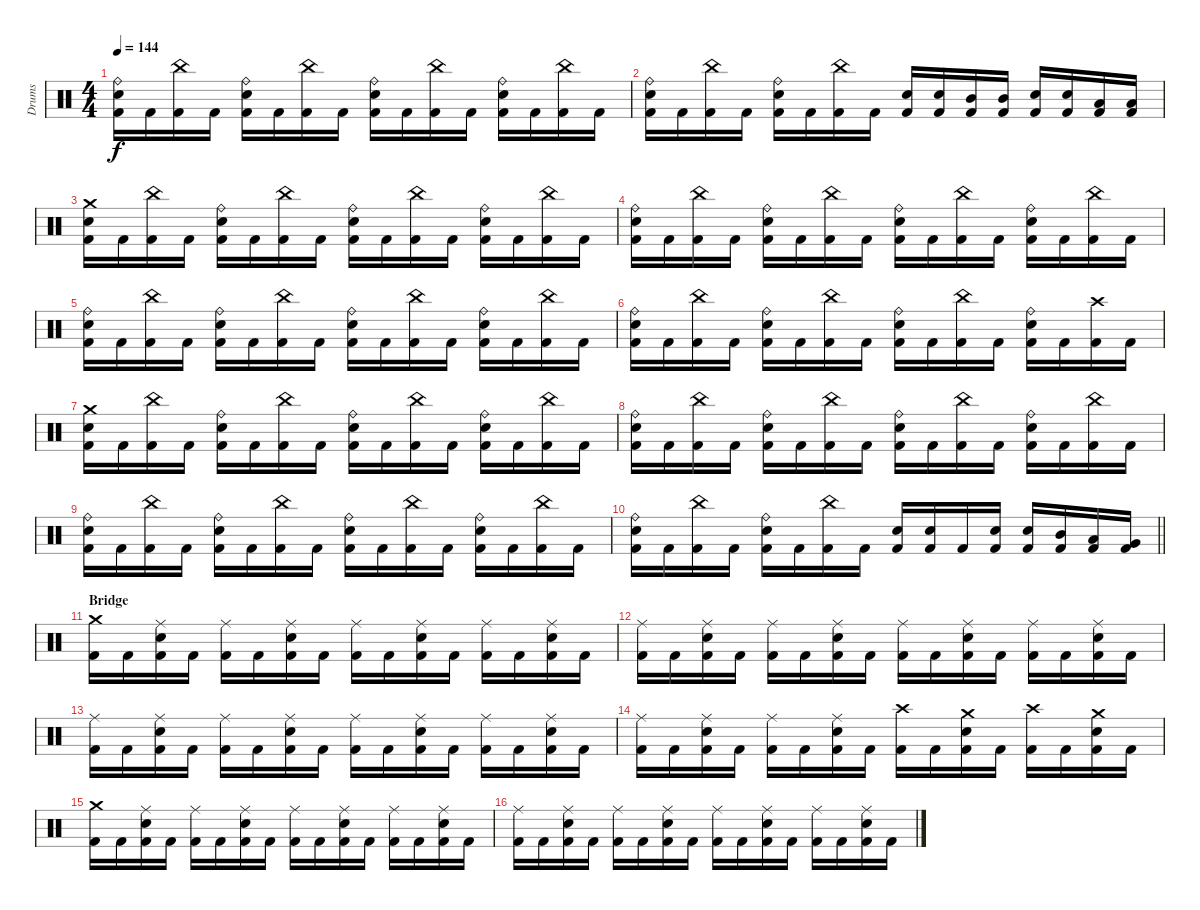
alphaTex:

\track ("Drums" "Drums") {instrument percussion}
\staff {score}
\articulation defaults
\ts (4 4)
\tempo 144
\clef neutral
\ks c
("Kick (hit) 2" "Snare (hit) 2" "Ride (bell)").16{dy f} "Kick (hit) 2".16 ("Kick (hit) 2" "China (hit)").16 "Kick (hit) 2".16 ("Kick (hit) 2" "Snare (hit) 2" "Ride (bell)").16 "Kick (hit) 2".16 ("Kick (hit) 2" "China (hit)").16 "Kick (hit) 2".16 ("Kick (hit) 2" "Snare (hit) 2" "Ride (bell)").16 "Kick (hit) 2".16 ("Kick (hit) 2" "China (hit)").16 "Kick (hit) 2".16 ("Kick (hit) 2" "Snare (hit) 2" "Ride (bell)").16 "Kick (hit) 2".16 ("Kick (hit) 2" "China (hit)").16 "Kick (hit) 2".16 |
("Kick (hit) 2" "Snare (hit) 2" "Ride (bell)").16 "Kick (hit) 2".16 ("Kick (hit) 2" "China (hit)").16 "Kick (hit) 2".16 ("Kick (hit) 2" "Snare (hit) 2" "Ride (bell)").16 "Kick (hit) 2".16 ("Kick (hit) 2" "China (hit)").16 "Kick (hit) 2".16 ("Kick (hit) 2" "Snare (hit) 2").16 ("Kick (hit) 2" "Snare (hit) 2").16 ("Kick (hit) 2" "Mid Tom (hit)").16 ("Kick (hit) 2" "Mid Tom (hit)").16 ("Kick (hit) 2" "Snare (hit) 2").16 ("Kick (hit) 2" "Snare (hit) 2").16 ("Kick (hit) 2" "Low Tom (hit)").16 ("Kick (hit) 2" "Low Tom (hit)").16 |
("Kick (hit) 2" "Snare (hit) 2" "Crash medium (hit)").16 "Kick (hit) 2".16 ("Kick (hit) 2" "China (hit)").16 "Kick (hit) 2".16 ("Kick (hit) 2" "Snare (hit) 2" "Ride (bell)").16 "Kick (hit) 2".16 ("Kick (hit) 2" "China (hit)").16 "Kick (hit) 2".16 ("Kick (hit) 2" "Snare (hit) 2" "Ride (bell)").16 "Kick (hit) 2".16 ("Kick (hit) 2" "China (hit)").16 "Kick (hit) 2".16 ("Kick (hit) 2" "Snare (hit) 2" "Ride (bell)").16 "Kick (hit) 2".16 ("Kick (hit) 2" "China (hit)").16 "Kick (hit) 2".16 |
("Kick (hit) 2" "Snare (hit) 2" "Ride (bell)").16 "Kick (hit) 2".16 ("Kick (hit) 2" "China (hit)").16 "Kick (hit) 2".16 ("Kick (hit) 2" "Snare (hit) 2" "Ride (bell)").16 "Kick (hit) 2".16 ("Kick (hit) 2" "China (hit)").16 "Kick (hit) 2".16 ("Kick (hit) 2" "Snare (hit) 2" "Ride (bell)").16 "Kick (hit) 2".16 ("Kick (hit) 2" "China (hit)").16 "Kick (hit) 2".16 ("Kick (hit) 2" "Snare (hit) 2" "Ride (bell)").16 "Kick (hit) 2".16 ("Kick (hit) 2" "China (hit)").16 "Kick (hit) 2".16 |
("Kick (hit) 2" "Snare (hit) 2" "Ride (bell)").16 "Kick (hit) 2".16 ("Kick (hit) 2" "China (hit)").16 "Kick (hit) 2".16 ("Kick (hit) 2" "Snare (hit) 2" "Ride (bell)").16 "Kick (hit) 2".16 ("Kick (hit) 2" "China (hit)").16 "Kick (hit) 2".16 ("Kick (hit) 2" "Snare (hit) 2" "Ride (bell)").16 "Kick (hit) 2".16 ("Kick (hit) 2" "China (hit)").16 "Kick (hit) 2".16 ("Kick (hit) 2" "Snare (hit) 2" "Ride (bell)").16 "Kick (hit) 2".16 ("Kick (hit) 2" "China (hit)").16 "Kick (hit) 2".16 |
("Kick (hit) 2" "Snare (hit) 2" "Ride (bell)").16 "Kick (hit) 2".16 ("Kick (hit) 2" "China (hit)").16 "Kick (hit) 2".16 ("Kick (hit) 2" "Snare (hit) 2" "Ride (bell)").16 "Kick (hit) 2".16 ("Kick (hit) 2" "China (hit)").16 "Kick (hit) 2".16 ("Kick (hit) 2" "Snare (hit) 2" "Ride (bell)").16 "Kick (hit) 2".16 ("Kick (hit) 2" "China (hit)").16 "Kick (hit) 2".16 ("Kick (hit) 2" "Snare (hit) 2" "Ride (bell)").16 "Kick (hit) 2".16 ("Kick (hit) 2" "Crash high (hit)").16 "Kick (hit) 2".16 |
("Kick (hit) 2" "Snare (hit) 2" "Crash medium (hit)").16 "Kick (hit) 2".16 ("Kick (hit) 2" "China (hit)").16 "Kick (hit) 2".16 ("Kick (hit) 2" "Snare (hit) 2" "Ride (bell)").16 "Kick (hit) 2".16 ("Kick (hit) 2" "China (hit)").16 "Kick (hit) 2".16 ("Kick (hit) 2" "Snare (hit) 2" "Ride (bell)").16 "Kick (hit) 2".16 ("Kick (hit) 2" "China (hit)").16 "Kick (hit) 2".16 ("Kick (hit) 2" "Snare (hit) 2" "Ride (bell)").16 "Kick (hit) 2".16 ("Kick (hit) 2" "China (hit)").16 "Kick (hit) 2".16 |
("Kick (hit) 2" "Snare (hit) 2" "Ride (bell)").16 "Kick (hit) 2".16 ("Kick (hit) 2" "China (hit)").16 "Kick (hit) 2".16 ("Kick (hit) 2" "Snare (hit) 2" "Ride (bell)").16 "Kick (hit) 2".16 ("Kick (hit) 2" "China (hit)").16 "Kick (hit) 2".16 ("Kick (hit) 2" "Snare (hit) 2" "Ride (bell)").16 "Kick (hit) 2".16 ("Kick (hit) 2" "China (hit)").16 "Kick (hit) 2".16 ("Kick (hit) 2" "Snare (hit) 2" "Ride (bell)").16 "Kick (hit) 2".16 ("Kick (hit) 2" "China (hit)").16 "Kick (hit) 2".16 |
("Kick (hit) 2" "Snare (hit) 2" "Ride (bell)").16 "Kick (hit) 2".16 ("Kick (hit) 2" "China (hit)").16 "Kick (hit) 2".16 ("Kick (hit) 2" "Snare (hit) 2" "Ride (bell)").16 "Kick (hit) 2".16 ("Kick (hit) 2" "China (hit)").16 "Kick (hit) 2".16 ("Kick (hit) 2" "Snare (hit) 2" "Ride (bell)").16 "Kick (hit) 2".16 ("Kick (hit) 2" "China (hit)").16 "Kick (hit) 2".16 ("Kick (hit) 2" "Snare (hit) 2" "Ride (bell)").16 "Kick (hit) 2".16 ("Kick (hit) 2" "China (hit)").16 "Kick (hit) 2".16 |
\barLineRight lightlight
("Kick (hit) 2" "Snare (hit) 2" "Ride (bell)").16 "Kick (hit) 2".16 ("Kick (hit) 2" "China (hit)").16 "Kick (hit) 2".16 ("Kick (hit) 2" "Snare (hit) 2" "Ride (bell)").16 "Kick (hit) 2".16 ("Kick (hit) 2" "China (hit)").16 "Kick (hit) 2".16 ("Kick (hit) 2" "Snare (hit) 2").16 ("Kick (hit) 2" "Snare (hit) 2").16 "Kick (hit) 2".16 ("Kick (hit) 2" "Snare (hit) 2").16 ("Kick (hit) 2" "Snare (hit) 2").16 ("Kick (hit) 2" "Mid Tom (hit)").16 ("Kick (hit) 2" "Low Tom (hit)").16 ("Kick (hit) 2" "Very Low Tom (hit)").16 |
\section ("" "Bridge")
("Kick (hit) 2" "Crash medium (hit)").16 "Kick (hit) 2".16 ("Kick (hit) 2" "Snare (hit) 2" "Ride (middle)").16 "Kick (hit) 2".16 ("Kick (hit) 2" "Ride (middle)").16 "Kick (hit) 2".16 ("Kick (hit) 2" "Snare (hit) 2" "Ride (middle)").16 "Kick (hit) 2".16 ("Kick (hit) 2" "Ride (middle)").16 "Kick (hit) 2".16 ("Kick (hit) 2" "Snare (hit) 2" "Ride (middle)").16 "Kick (hit) 2".16 ("Kick (hit) 2" "Ride (middle)").16 "Kick (hit) 2".16 ("Kick (hit) 2" "Snare (hit) 2" "Ride (middle)").16 "Kick (hit) 2".16 |
("Kick (hit) 2" "Ride (middle)").16 "Kick (hit) 2".16 ("Kick (hit) 2" "Snare (hit) 2" "Ride (middle)").16 "Kick (hit) 2".16 ("Kick (hit) 2" "Ride (middle)").16 "Kick (hit) 2".16 ("Kick (hit) 2" "Snare (hit) 2" "Ride (middle)").16 "Kick (hit) 2".16 ("Kick (hit) 2" "Ride (middle)").16 "Kick (hit) 2".16 ("Kick (hit) 2" "Snare (hit) 2" "Ride (middle)").16 "Kick (hit) 2".16 ("Kick (hit) 2" "Ride (middle)").16 "Kick (hit) 2".16 ("Kick (hit) 2" "Snare (hit) 2" "Ride (middle)").16 "Kick (hit) 2".16 |
("Kick (hit) 2" "Ride (middle)").16 "Kick (hit) 2".16 ("Kick (hit) 2" "Snare (hit) 2" "Ride (middle)").16 "Kick (hit) 2".16 ("Kick (hit) 2" "Ride (middle)").16 "Kick (hit) 2".16 ("Kick (hit) 2" "Snare (hit) 2" "Ride (middle)").16 "Kick (hit) 2".16 ("Kick (hit) 2" "Ride (middle)").16 "Kick (hit) 2".16 ("Kick (hit) 2" "Snare (hit) 2" "Ride (middle)").16 "Kick (hit) 2".16 ("Kick (hit) 2" "Ride (middle)").16 "Kick (hit) 2".16 ("Kick (hit) 2" "Snare (hit) 2" "Ride (middle)").16 "Kick (hit) 2".16 |
("Kick (hit) 2" "Ride (middle)").16 "Kick (hit) 2".16 ("Kick (hit) 2" "Snare (hit) 2" "Ride (middle)").16 "Kick (hit) 2".16 ("Kick (hit) 2" "Ride (middle)").16 "Kick (hit) 2".16 ("Kick (hit) 2" "Snare (hit) 2" "Ride (middle)").16 "Kick (hit) 2".16 ("Kick (hit) 2" "Crash high (hit)").16 "Kick (hit) 2".16 ("Kick (hit) 2" "Snare (hit) 2" "Crash medium (hit)").16 "Kick (hit) 2".16 ("Kick (hit) 2" "Crash high (hit)").16 "Kick (hit) 2".16 ("Kick (hit) 2" "Snare (hit) 2" "Crash medium (hit)").16 "Kick (hit) 2".16 |
("Kick (hit) 2" "Crash medium (hit)").16 "Kick (hit) 2".16 ("Kick (hit) 2" "Snare (hit) 2" "Ride (middle)").16 "Kick (hit) 2".16 ("Kick (hit) 2" "Ride (middle)").16 "Kick (hit) 2".16 ("Kick (hit) 2" "Snare (hit) 2" "Ride (middle)").16 "Kick (hit) 2".16 ("Kick (hit) 2" "Ride (middle)").16 "Kick (hit) 2".16 ("Kick (hit) 2" "Snare (hit) 2" "Ride (middle)").16 "Kick (hit) 2".16 ("Kick (hit) 2" "Ride (middle)").16 "Kick (hit) 2".16 ("Kick (hit) 2" "Snare (hit) 2" "Ride (middle)").16 "Kick (hit) 2".16 |
("Kick (hit) 2" "Ride (middle)").16 "Kick (hit) 2".16 ("Kick (hit) 2" "Snare (hit) 2" "Ride (middle)").16 "Kick (hit) 2".16 ("Kick (hit) 2" "Ride (middle)").16 "Kick (hit) 2".16 ("Kick (hit) 2" "Snare (hit) 2" "Ride (middle)").16 "Kick (hit) 2".16 ("Kick (hit) 2" "Ride (middle)").16 "Kick (hit) 2".16 ("Kick (hit) 2" "Snare (hit) 2" "Ride (middle)").16 "Kick (hit) 2".16 ("Kick (hit) 2" "Ride (middle)").16 "Kick (hit) 2".16 ("Kick (hit) 2" "Snare (hit) 2" "Ride (middle)").16 "Kick (hit) 2".16
